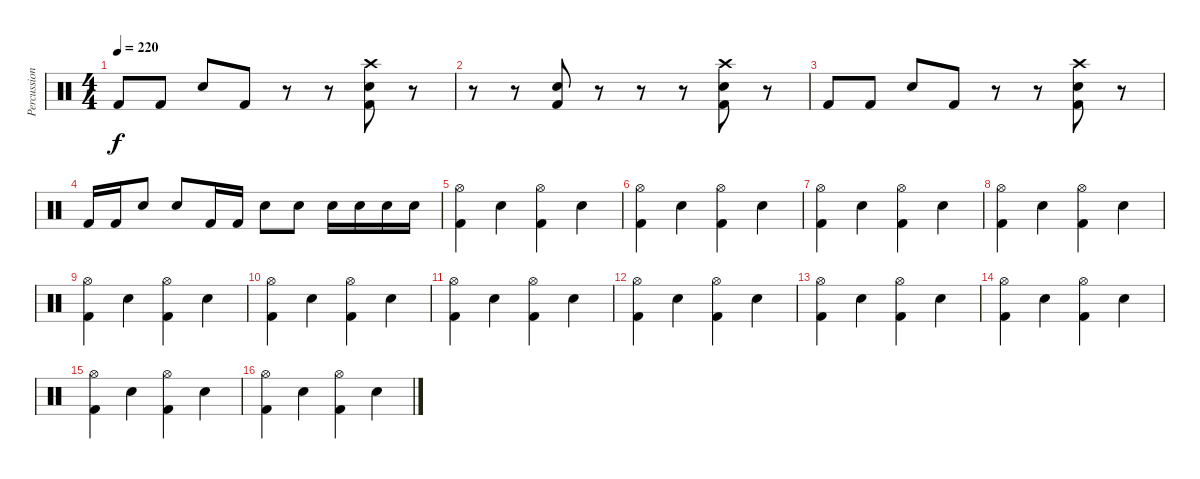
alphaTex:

\track ("Percussion" "Percussion") {instrument percussion}
\staff {score}
\articulation defaults
\ts (4 4)
\tempo 220
\clef neutral
\ks c "Kick (hit) 2".8{dy f} "Kick (hit) 2".8 "Electric Snare (hit)".8 "Kick (hit) 2".8
r.8 r.8 ("Crash high (hit)" "Electric Snare (hit)" "Kick (hit) 2").8 r.8 |
r.8 r.8 ("Electric Snare (hit)" "Kick (hit) 2").8 r.8 r.8 r.8 ("Crash high (hit)" "Electric Snare (hit)" "Kick (hit) 2").8 r.8 |
"Kick (hit) 2".8 "Kick (hit) 2".8 "Electric Snare (hit)".8 "Kick (hit) 2".8 r.8 r.8 ("Crash high (hit)" "Electric Snare (hit)" "Kick (hit) 2").8 r.8 |
"Kick (hit) 2".16 "Kick (hit) 2".16 "Electric Snare (hit)".8 "Electric Snare (hit)".8 "Kick (hit) 2".16 "Kick (hit) 2".16 "Electric Snare (hit)".8 "Electric Snare (hit)".8 "Electric Snare (hit)".16 "Electric Snare (hit)".16 "Electric Snare (hit)".16 "Electric Snare (hit)".16 |
("Hi-Hat (open)" "Kick (hit) 2").4 "Electric Snare (hit)".4 ("Hi-Hat (open)" "Kick (hit) 2").4 "Electric Snare (hit)".4 |
("Hi-Hat (open)" "Kick (hit) 2").4 "Electric Snare (hit)".4 ("Hi-Hat (open)" "Kick (hit) 2").4 "Electric Snare (hit)".4 |
("Hi-Hat (open)" "Kick (hit) 2").4 "Electric Snare (hit)".4 ("Hi-Hat (open)" "Kick (hit) 2").4 "Electric Snare (hit)".4 |
("Hi-Hat (open)" "Kick (hit) 2").4 "Electric Snare (hit)".4 ("Hi-Hat (open)" "Kick (hit) 2").4 "Electric Snare (hit)".4 |
("Hi-Hat (open)" "Kick (hit) 2").4 "Electric Snare (hit)".4 ("Hi-Hat (open)" "Kick (hit) 2").4 "Electric Snare (hit)".4 |
("Hi-Hat (open)" "Kick (hit) 2").4 "Electric Snare (hit)".4 ("Hi-Hat (open)" "Kick (hit) 2").4 "Electric Snare (hit)".4 |
("Hi-Hat (open)" "Kick (hit) 2").4 "Electric Snare (hit)".4 ("Hi-Hat (open)" "Kick (hit) 2").4 "Electric Snare (hit)".4 |
("Hi-Hat (open)" "Kick (hit) 2").4 "Electric Snare (hit)".4 ("Hi-Hat (open)" "Kick (hit) 2").4 "Electric Snare (hit)".4 |
("Hi-Hat (open)" "Kick (hit) 2").4 "Electric Snare (hit)".4 ("Hi-Hat (open)" "Kick (hit) 2").4 "Electric Snare (hit)".4 |
("Hi-Hat (open)" "Kick (hit) 2").4 "Electric Snare (hit)".4 ("Hi-Hat (open)" "Kick (hit) 2").4 "Electric Snare (hit)".4 |
("Hi-Hat (open)" "Kick (hit) 2").4 "Electric Snare (hit)".4 ("Hi-Hat (open)" "Kick (hit) 2").4 "Electric Snare (hit)".4 |
("Hi-Hat (open)" "Kick (hit) 2").4 "Electric Snare (hit)".4 ("Hi-Hat (open)" "Kick (hit) 2").4 "Electric Snare (hit)".4
